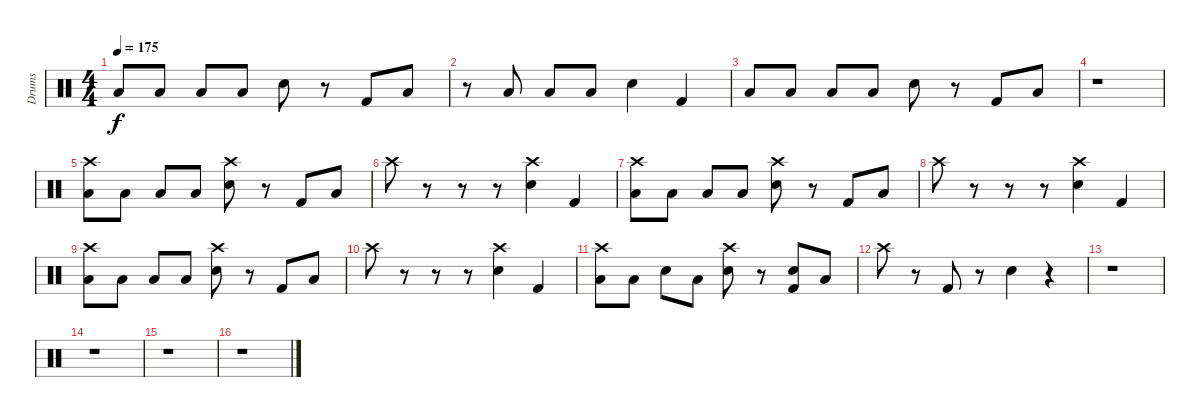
\track ("Drums" "Drums") {instrument percussion}
\staff {score}
\articulation defaults
\ts (4 4)
\tempo 175
\clef neutral
\ks c "Low Tom (hit)".8{dy f} "Low Tom (hit)".8 "Low Tom (hit)".8 "Low Tom (hit)".8 "Electric Snare (hit)".8
r.8 "Kick (hit) 2".8 "Low Tom (hit)".8 |
r.8 "Low Tom (hit)".8 "Low Tom (hit)".8 "Low Tom (hit)".8 "Electric Snare (hit)".4 "Kick (hit) 2".4 |
"Low Tom (hit)".8 "Low Tom (hit)".8 "Low Tom (hit)".8 "Low Tom (hit)".8 "Electric Snare (hit)".8 r.8 "Kick (hit) 2".8 "Low Tom (hit)".8 |
r.1 |
("Crash high (hit)" "Low Tom (hit)").8 "Low Tom (hit)".8 "Low Tom (hit)".8 "Low Tom (hit)".8 ("Crash high (hit)" "Electric Snare (hit)").8 r.8 "Kick (hit) 2".8 "Low Tom (hit)".8 |
"Crash high (hit)".8 r.8 r.8 r.8 ("Crash high (hit)" "Electric Snare (hit)").4 "Kick (hit) 2".4 |
("Crash high (hit)" "Low Tom (hit)").8 "Low Tom (hit)".8 "Low Tom (hit)".8 "Low Tom (hit)".8 ("Crash high (hit)" "Electric Snare (hit)").8 r.8 "Kick (hit) 2".8 "Low Tom (hit)".8 |
"Crash high (hit)".8 r.8 r.8 r.8 ("Crash high (hit)" "Electric Snare (hit)").4 "Kick (hit) 2".4 |
("Crash high (hit)" "Low Tom (hit)").8 "Low Tom (hit)".8 "Low Tom (hit)".8 "Low Tom (hit)".8 ("Crash high (hit)" "Electric Snare (hit)").8 r.8 "Kick (hit) 2".8 "Low Tom (hit)".8 |
"Crash high (hit)".8 r.8 r.8 r.8 ("Crash high (hit)" "Electric Snare (hit)").4 "Kick (hit) 2".4 |
("Crash high (hit)" "Low Tom (hit)").8 "Low Tom (hit)".8 "Electric Snare (hit)".8 "Low Tom (hit)".8 ("Crash high (hit)" "Electric Snare (hit)").8 r.8 ("Electric Snare (hit)" "Kick (hit) 2").8 "Low Tom (hit)".8 |
"Crash high (hit)".8 r.8 "Kick (hit) 2".8 r.8 "Electric Snare (hit)".4 r.4 |
r.1 |
r.1 |
r.1 |
r.1
